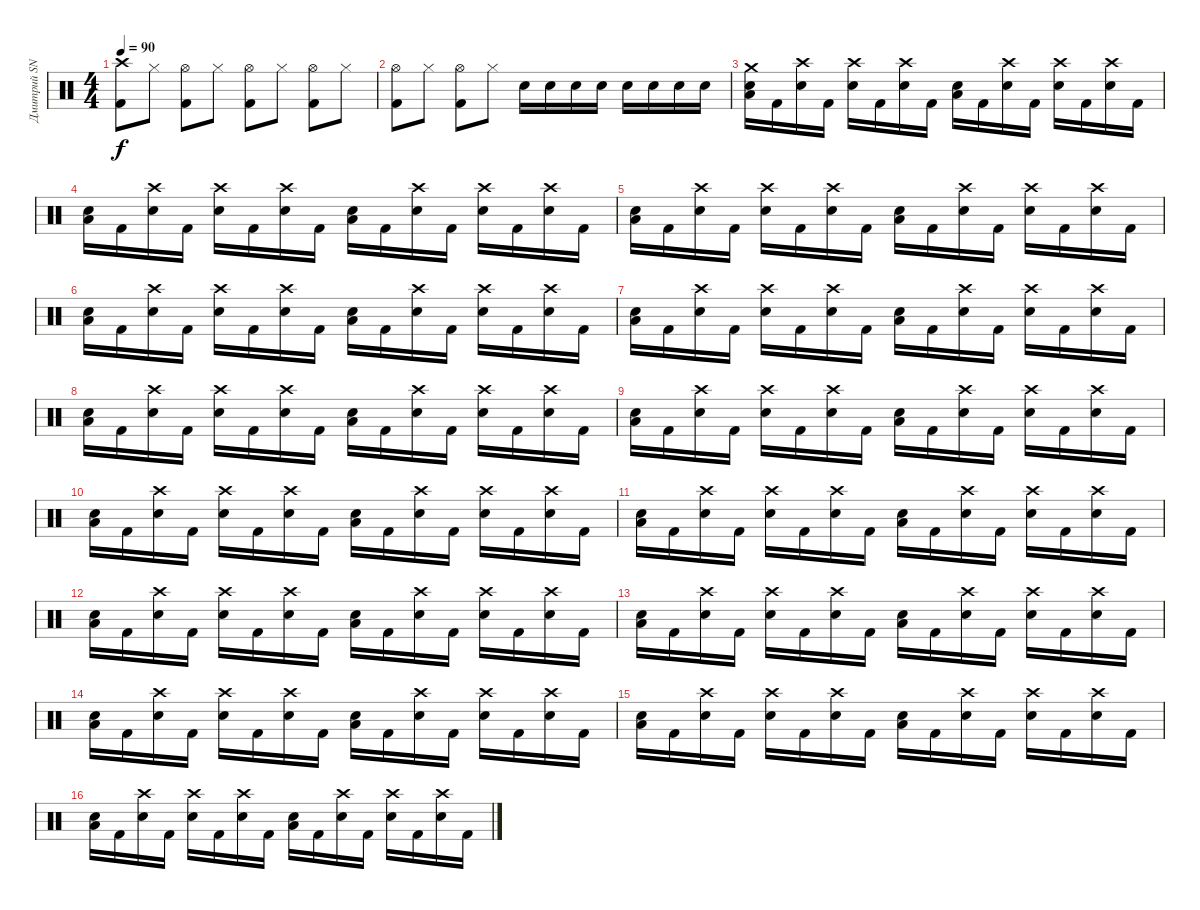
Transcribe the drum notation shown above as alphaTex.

\track ("Дмитрий SNAKE Хакимов" "Дмитрий SN") {instrument percussion}
\staff {score}
\articulation defaults
\ts (4 4)
\tempo 90
\clef neutral
\ks c
("Crash high (hit)" "Kick (hit) 2").8{dy f} "Hi-Hat (closed)".8 ("Hi-Hat (open)" "Kick (hit) 2").8 "Hi-Hat (closed)".8 ("Hi-Hat (open)" "Kick (hit) 2").8 "Hi-Hat (closed)".8 ("Hi-Hat (open)" "Kick (hit) 2").8 "Hi-Hat (closed)".8 |
("Hi-Hat (open)" "Kick (hit) 2").8 "Hi-Hat (closed)".8 ("Hi-Hat (open)" "Kick (hit) 2").8 "Hi-Hat (closed)".8 "Snare (hit) 2".16 "Snare (hit) 2".16 "Snare (hit) 2".16 "Snare (hit) 2".16 "Snare (hit) 2".16 "Snare (hit) 2".16 "Snare (hit) 2".16 "Snare (hit) 2".16 |
("Crash medium (hit)" "Snare (hit) 2" "Low Tom (hit)").16 "Kick (hit) 2".16 ("Crash high (hit)" "Snare (hit) 2").16 "Kick (hit) 2".16 ("Crash high (hit)" "Snare (hit) 2").16 "Kick (hit) 2".16 ("Crash high (hit)" "Snare (hit) 2").16 "Kick (hit) 2".16 ("Snare (hit) 2" "Low Tom (hit)").16 "Kick (hit) 2".16 ("Crash high (hit)" "Snare (hit) 2").16 "Kick (hit) 2".16 ("Crash high (hit)" "Snare (hit) 2").16 "Kick (hit) 2".16 ("Crash high (hit)" "Snare (hit) 2").16 "Kick (hit) 2".16 |
("Snare (hit) 2" "Low Tom (hit)").16 "Kick (hit) 2".16 ("Crash high (hit)" "Snare (hit) 2").16 "Kick (hit) 2".16 ("Crash high (hit)" "Snare (hit) 2").16 "Kick (hit) 2".16 ("Crash high (hit)" "Snare (hit) 2").16 "Kick (hit) 2".16 ("Snare (hit) 2" "Low Tom (hit)").16 "Kick (hit) 2".16 ("Crash high (hit)" "Snare (hit) 2").16 "Kick (hit) 2".16 ("Crash high (hit)" "Snare (hit) 2").16 "Kick (hit) 2".16 ("Crash high (hit)" "Snare (hit) 2").16 "Kick (hit) 2".16 |
("Snare (hit) 2" "Low Tom (hit)").16 "Kick (hit) 2".16 ("Crash high (hit)" "Snare (hit) 2").16 "Kick (hit) 2".16 ("Crash high (hit)" "Snare (hit) 2").16 "Kick (hit) 2".16 ("Crash high (hit)" "Snare (hit) 2").16 "Kick (hit) 2".16 ("Snare (hit) 2" "Low Tom (hit)").16 "Kick (hit) 2".16 ("Crash high (hit)" "Snare (hit) 2").16 "Kick (hit) 2".16 ("Crash high (hit)" "Snare (hit) 2").16 "Kick (hit) 2".16 ("Crash high (hit)" "Snare (hit) 2").16 "Kick (hit) 2".16 |
("Snare (hit) 2" "Low Tom (hit)").16 "Kick (hit) 2".16 ("Crash high (hit)" "Snare (hit) 2").16 "Kick (hit) 2".16 ("Crash high (hit)" "Snare (hit) 2").16 "Kick (hit) 2".16 ("Crash high (hit)" "Snare (hit) 2").16 "Kick (hit) 2".16 ("Snare (hit) 2" "Low Tom (hit)").16 "Kick (hit) 2".16 ("Crash high (hit)" "Snare (hit) 2").16 "Kick (hit) 2".16 ("Crash high (hit)" "Snare (hit) 2").16 "Kick (hit) 2".16 ("Crash high (hit)" "Snare (hit) 2").16 "Kick (hit) 2".16 |
("Snare (hit) 2" "Low Tom (hit)").16 "Kick (hit) 2".16 ("Crash high (hit)" "Snare (hit) 2").16 "Kick (hit) 2".16 ("Crash high (hit)" "Snare (hit) 2").16 "Kick (hit) 2".16 ("Crash high (hit)" "Snare (hit) 2").16 "Kick (hit) 2".16 ("Snare (hit) 2" "Low Tom (hit)").16 "Kick (hit) 2".16 ("Crash high (hit)" "Snare (hit) 2").16 "Kick (hit) 2".16 ("Crash high (hit)" "Snare (hit) 2").16 "Kick (hit) 2".16 ("Crash high (hit)" "Snare (hit) 2").16 "Kick (hit) 2".16 |
("Snare (hit) 2" "Low Tom (hit)").16 "Kick (hit) 2".16 ("Crash high (hit)" "Snare (hit) 2").16 "Kick (hit) 2".16 ("Crash high (hit)" "Snare (hit) 2").16 "Kick (hit) 2".16 ("Crash high (hit)" "Snare (hit) 2").16 "Kick (hit) 2".16 ("Snare (hit) 2" "Low Tom (hit)").16 "Kick (hit) 2".16 ("Crash high (hit)" "Snare (hit) 2").16 "Kick (hit) 2".16 ("Crash high (hit)" "Snare (hit) 2").16 "Kick (hit) 2".16 ("Crash high (hit)" "Snare (hit) 2").16 "Kick (hit) 2".16 |
("Snare (hit) 2" "Low Tom (hit)").16 "Kick (hit) 2".16 ("Crash high (hit)" "Snare (hit) 2").16 "Kick (hit) 2".16 ("Crash high (hit)" "Snare (hit) 2").16 "Kick (hit) 2".16 ("Crash high (hit)" "Snare (hit) 2").16 "Kick (hit) 2".16 ("Snare (hit) 2" "Low Tom (hit)").16 "Kick (hit) 2".16 ("Crash high (hit)" "Snare (hit) 2").16 "Kick (hit) 2".16 ("Crash high (hit)" "Snare (hit) 2").16 "Kick (hit) 2".16 ("Crash high (hit)" "Snare (hit) 2").16 "Kick (hit) 2".16 |
("Snare (hit) 2" "Low Tom (hit)").16 "Kick (hit) 2".16 ("Crash high (hit)" "Snare (hit) 2").16 "Kick (hit) 2".16 ("Crash high (hit)" "Snare (hit) 2").16 "Kick (hit) 2".16 ("Crash high (hit)" "Snare (hit) 2").16 "Kick (hit) 2".16 ("Snare (hit) 2" "Low Tom (hit)").16 "Kick (hit) 2".16 ("Crash high (hit)" "Snare (hit) 2").16 "Kick (hit) 2".16 ("Crash high (hit)" "Snare (hit) 2").16 "Kick (hit) 2".16 ("Crash high (hit)" "Snare (hit) 2").16 "Kick (hit) 2".16 |
("Snare (hit) 2" "Low Tom (hit)").16 "Kick (hit) 2".16 ("Crash high (hit)" "Snare (hit) 2").16 "Kick (hit) 2".16 ("Crash high (hit)" "Snare (hit) 2").16 "Kick (hit) 2".16 ("Crash high (hit)" "Snare (hit) 2").16 "Kick (hit) 2".16 ("Snare (hit) 2" "Low Tom (hit)").16 "Kick (hit) 2".16 ("Crash high (hit)" "Snare (hit) 2").16 "Kick (hit) 2".16 ("Crash high (hit)" "Snare (hit) 2").16 "Kick (hit) 2".16 ("Crash high (hit)" "Snare (hit) 2").16 "Kick (hit) 2".16 |
("Snare (hit) 2" "Low Tom (hit)").16 "Kick (hit) 2".16 ("Crash high (hit)" "Snare (hit) 2").16 "Kick (hit) 2".16 ("Crash high (hit)" "Snare (hit) 2").16 "Kick (hit) 2".16 ("Crash high (hit)" "Snare (hit) 2").16 "Kick (hit) 2".16 ("Snare (hit) 2" "Low Tom (hit)").16 "Kick (hit) 2".16 ("Crash high (hit)" "Snare (hit) 2").16 "Kick (hit) 2".16 ("Crash high (hit)" "Snare (hit) 2").16 "Kick (hit) 2".16 ("Crash high (hit)" "Snare (hit) 2").16 "Kick (hit) 2".16 |
("Snare (hit) 2" "Low Tom (hit)").16 "Kick (hit) 2".16 ("Crash high (hit)" "Snare (hit) 2").16 "Kick (hit) 2".16 ("Crash high (hit)" "Snare (hit) 2").16 "Kick (hit) 2".16 ("Crash high (hit)" "Snare (hit) 2").16 "Kick (hit) 2".16 ("Snare (hit) 2" "Low Tom (hit)").16 "Kick (hit) 2".16 ("Crash high (hit)" "Snare (hit) 2").16 "Kick (hit) 2".16 ("Crash high (hit)" "Snare (hit) 2").16 "Kick (hit) 2".16 ("Crash high (hit)" "Snare (hit) 2").16 "Kick (hit) 2".16 |
("Snare (hit) 2" "Low Tom (hit)").16 "Kick (hit) 2".16 ("Crash high (hit)" "Snare (hit) 2").16 "Kick (hit) 2".16 ("Crash high (hit)" "Snare (hit) 2").16 "Kick (hit) 2".16 ("Crash high (hit)" "Snare (hit) 2").16 "Kick (hit) 2".16 ("Snare (hit) 2" "Low Tom (hit)").16 "Kick (hit) 2".16 ("Crash high (hit)" "Snare (hit) 2").16 "Kick (hit) 2".16 ("Crash high (hit)" "Snare (hit) 2").16 "Kick (hit) 2".16 ("Crash high (hit)" "Snare (hit) 2").16 "Kick (hit) 2".16 |
("Snare (hit) 2" "Low Tom (hit)").16 "Kick (hit) 2".16 ("Crash high (hit)" "Snare (hit) 2").16 "Kick (hit) 2".16 ("Crash high (hit)" "Snare (hit) 2").16 "Kick (hit) 2".16 ("Crash high (hit)" "Snare (hit) 2").16 "Kick (hit) 2".16 ("Snare (hit) 2" "Low Tom (hit)").16 "Kick (hit) 2".16 ("Crash high (hit)" "Snare (hit) 2").16 "Kick (hit) 2".16 ("Crash high (hit)" "Snare (hit) 2").16 "Kick (hit) 2".16 ("Crash high (hit)" "Snare (hit) 2").16 "Kick (hit) 2".16 |
("Snare (hit) 2" "Low Tom (hit)").16 "Kick (hit) 2".16 ("Crash high (hit)" "Snare (hit) 2").16 "Kick (hit) 2".16 ("Crash high (hit)" "Snare (hit) 2").16 "Kick (hit) 2".16 ("Crash high (hit)" "Snare (hit) 2").16 "Kick (hit) 2".16 ("Snare (hit) 2" "Low Tom (hit)").16 "Kick (hit) 2".16 ("Crash high (hit)" "Snare (hit) 2").16 "Kick (hit) 2".16 ("Crash high (hit)" "Snare (hit) 2").16 "Kick (hit) 2".16 ("Crash high (hit)" "Snare (hit) 2").16 "Kick (hit) 2".16
